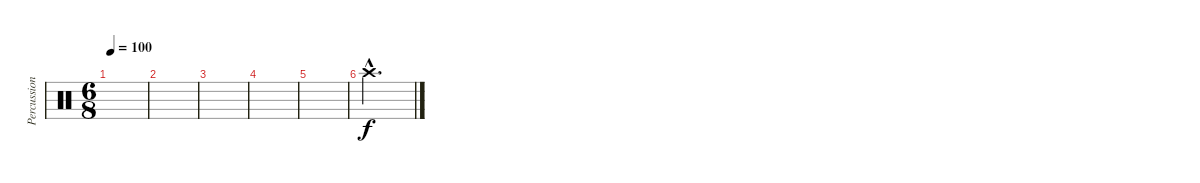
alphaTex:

\track ("Percussion" "Percussion") {instrument percussion}
\staff {score}
\articulation defaults
\ts (6 8)
\tempo 100
\clef neutral
\ks c
|
|
|
|
|
"Crash high (hit)"{hac}.2{d}
